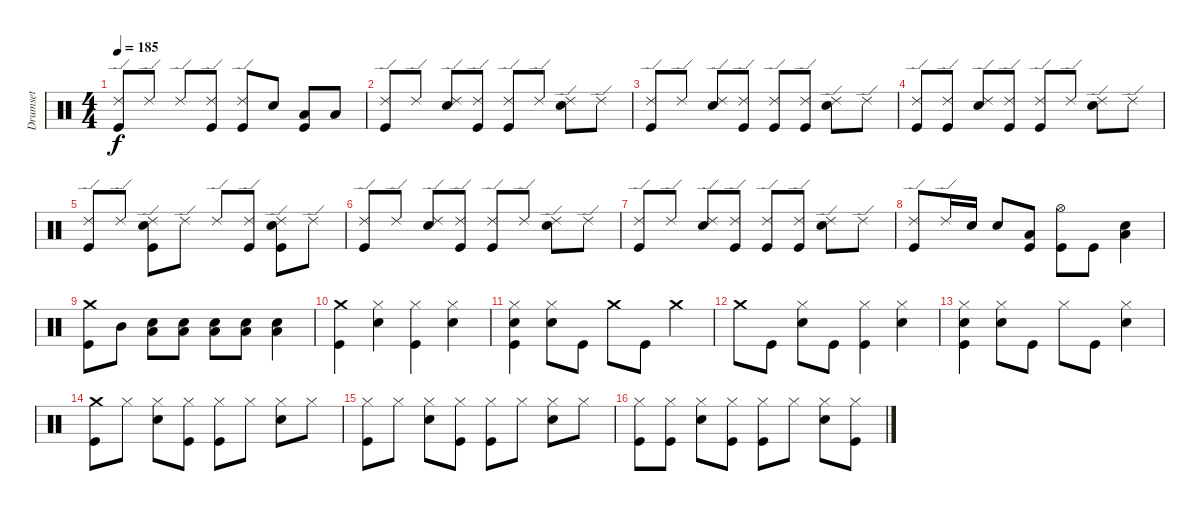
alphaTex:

\track ("Drumset" "Drumset") {instrument percussion}
\staff {score}
\articulation defaults
\ts (4 4)
\tempo 185
\clef neutral
\ks c
("Ride (edge) 2" "Kick (hit)").8{dy f} "Ride (edge) 2".8 "Ride (edge) 2".8 ("Ride (edge) 2" "Kick (hit)").8 ("Ride (edge) 2" "Kick (hit)").8 "Snare (hit) 2".8 ("Low Tom (hit)" "Kick (hit)").8 "Low Tom (hit)".8 |
("Ride (edge) 2" "Kick (hit)").8 "Ride (edge) 2".8 ("Ride (edge) 2" "Snare (hit) 2").8 ("Ride (edge) 2" "Kick (hit)").8 ("Ride (edge) 2" "Kick (hit)").8 "Ride (edge) 2".8 ("Ride (edge) 2" "Snare (hit) 2").8 "Ride (edge) 2".8 |
("Ride (edge) 2" "Kick (hit)").8 "Ride (edge) 2".8 ("Ride (edge) 2" "Snare (hit) 2").8 ("Ride (edge) 2" "Kick (hit)").8 ("Ride (edge) 2" "Kick (hit)").8 ("Ride (edge) 2" "Kick (hit)").8 ("Ride (edge) 2" "Snare (hit) 2").8 "Ride (edge) 2".8 |
("Ride (edge) 2" "Kick (hit)").8 ("Ride (edge) 2" "Kick (hit)").8 ("Ride (edge) 2" "Snare (hit) 2").8 ("Ride (edge) 2" "Kick (hit)").8 ("Ride (edge) 2" "Kick (hit)").8 "Ride (edge) 2".8 ("Ride (edge) 2" "Snare (hit) 2").8 "Ride (edge) 2".8 |
("Ride (edge) 2" "Kick (hit)").8 "Ride (edge) 2".8 ("Ride (edge) 2" "Snare (hit) 2" "Kick (hit)").8 "Ride (edge) 2".8 "Ride (edge) 2".8 ("Ride (edge) 2" "Kick (hit)").8 ("Ride (edge) 2" "Snare (hit) 2" "Kick (hit)").8 "Ride (edge) 2".8 |
("Ride (edge) 2" "Kick (hit)").8 "Ride (edge) 2".8 ("Ride (edge) 2" "Snare (hit) 2").8 ("Ride (edge) 2" "Kick (hit)").8 ("Ride (edge) 2" "Kick (hit)").8 "Ride (edge) 2".8 ("Ride (edge) 2" "Snare (hit) 2").8 "Ride (edge) 2".8 |
("Ride (edge) 2" "Kick (hit)").8 "Ride (edge) 2".8 ("Ride (edge) 2" "Snare (hit) 2").8 ("Ride (edge) 2" "Kick (hit)").8 ("Ride (edge) 2" "Kick (hit)").8 ("Ride (edge) 2" "Kick (hit)").8 ("Ride (edge) 2" "Snare (hit) 2").8 "Ride (edge) 2".8 |
("Ride (edge) 2" "Kick (hit)").8 "Ride (edge) 2".16 "Snare (hit) 2".16 "Snare (hit) 2".8 ("Low Tom (hit)" "Kick (hit)").8 ("Hi-Hat (open)" "Kick (hit)").8 "Kick (hit)".8 ("Low Tom (hit)" "Snare (hit) 2").4 |
("Crash medium (hit)" "Kick (hit)").8 "Mid Tom (hit)".8 ("Low Floor Tom (hit)" "Snare (hit) 2").8 ("Low Floor Tom (hit)" "Snare (hit) 2").8 ("Low Floor Tom (hit)" "Snare (hit) 2").8 ("Low Floor Tom (hit)" "Snare (hit) 2").8 ("Low Floor Tom (hit)" "Snare (hit) 2").4 |
("Crash medium (hit)" "Kick (hit)").4 ("Hi-Hat (closed)" "Snare (hit) 2").4 ("Hi-Hat (closed)" "Kick (hit)").4 ("Hi-Hat (closed)" "Snare (hit) 2").4 |
("Hi-Hat (closed)" "Snare (hit) 2" "Kick (hit)").4 ("Hi-Hat (closed)" "Snare (hit) 2").8 "Kick (hit)".8 "Crash medium (hit)".8 "Kick (hit)".8 "Crash medium (hit)".4 |
"Crash medium (hit)".8 "Kick (hit)".8 ("Hi-Hat (closed)" "Snare (hit) 2").8 "Kick (hit)".8 ("Hi-Hat (closed)" "Kick (hit)").4 ("Hi-Hat (closed)" "Snare (hit) 2").4 |
("Hi-Hat (closed)" "Snare (hit) 2" "Kick (hit)").4 ("Hi-Hat (closed)" "Snare (hit) 2").8 "Kick (hit)".8 "Hi-Hat (closed)".8 "Kick (hit)".8 ("Hi-Hat (closed)" "Snare (hit) 2").4 |
("Crash medium (hit)" "Kick (hit)").8 "Hi-Hat (closed)".8 ("Hi-Hat (closed)" "Snare (hit) 2").8 ("Hi-Hat (closed)" "Kick (hit)").8 ("Hi-Hat (closed)" "Kick (hit)").8 "Hi-Hat (closed)".8 ("Hi-Hat (closed)" "Snare (hit) 2").8 "Hi-Hat (closed)".8 |
("Hi-Hat (closed)" "Kick (hit)").8 "Hi-Hat (closed)".8 ("Hi-Hat (closed)" "Snare (hit) 2").8 ("Hi-Hat (closed)" "Kick (hit)").8 ("Hi-Hat (closed)" "Kick (hit)").8 "Hi-Hat (closed)".8 ("Hi-Hat (closed)" "Snare (hit) 2").8 "Hi-Hat (closed)".8 |
("Hi-Hat (closed)" "Kick (hit)").8 ("Hi-Hat (closed)" "Kick (hit)").8 ("Hi-Hat (closed)" "Snare (hit) 2").8 ("Hi-Hat (closed)" "Kick (hit)").8 ("Hi-Hat (closed)" "Kick (hit)").8 "Hi-Hat (closed)".8 ("Hi-Hat (closed)" "Snare (hit) 2").8 ("Hi-Hat (closed)" "Kick (hit)").8
